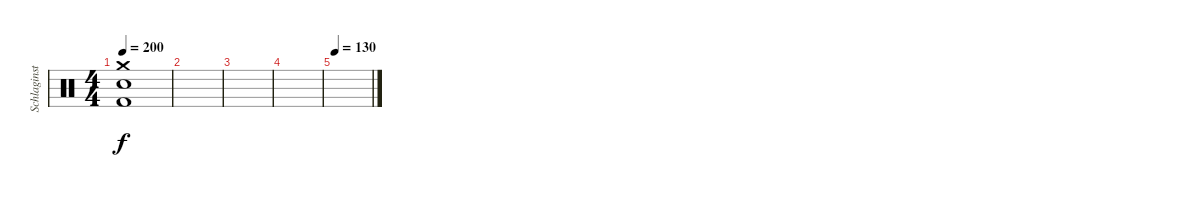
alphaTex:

\track ("Schlaginstrumente - Auswahl" "Schlaginst") {instrument percussion}
\staff {score}
\articulation defaults
\ts (4 4)
\tempo 200
\clef neutral
\ks c
("Crash medium (hit)" "Electric Snare (hit)" "Kick (hit) 2").1{dy f} |
|
|
|
\tempo 130
